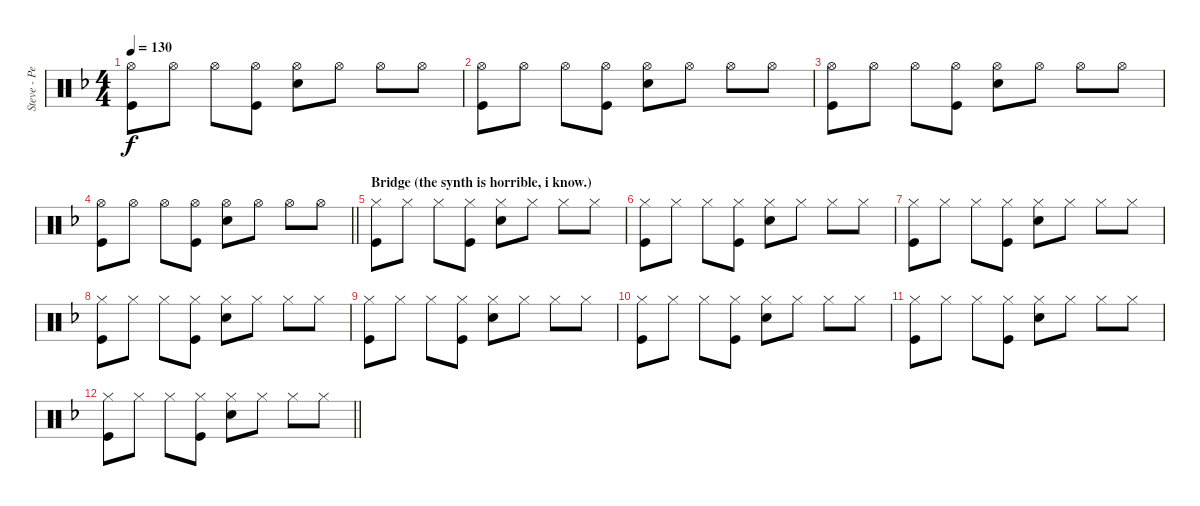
\track ("Steve - Percussion" "Steve - Pe") {instrument percussion}
\staff {score}
\articulation defaults
\ts (4 4)
\tempo 130
\clef neutral
\ks f
("Kick (hit)" "Hi-Hat (open)").8{dy f} "Hi-Hat (open)".8 "Hi-Hat (open)".8 ("Kick (hit)" "Hi-Hat (open)").8 ("Snare (hit) 2" "Hi-Hat (open)").8 "Hi-Hat (open)".8 "Hi-Hat (open)".8 "Hi-Hat (open)".8 |
("Kick (hit)" "Hi-Hat (open)").8 "Hi-Hat (open)".8 "Hi-Hat (open)".8 ("Kick (hit)" "Hi-Hat (open)").8 ("Snare (hit) 2" "Hi-Hat (open)").8 "Hi-Hat (open)".8 "Hi-Hat (open)".8 "Hi-Hat (open)".8 |
("Kick (hit)" "Hi-Hat (open)").8 "Hi-Hat (open)".8 "Hi-Hat (open)".8 ("Kick (hit)" "Hi-Hat (open)").8 ("Snare (hit) 2" "Hi-Hat (open)").8 "Hi-Hat (open)".8 "Hi-Hat (open)".8 "Hi-Hat (open)".8 |
\barLineRight lightlight
("Kick (hit)" "Hi-Hat (open)").8 "Hi-Hat (open)".8 "Hi-Hat (open)".8 ("Kick (hit)" "Hi-Hat (open)").8 ("Snare (hit) 2" "Hi-Hat (open)").8 "Hi-Hat (open)".8 "Hi-Hat (open)".8 "Hi-Hat (open)".8 |
\section ("" "Bridge (the synth is horrible, i know.)")
("Kick (hit)" "Hi-Hat (closed)").8 "Hi-Hat (closed)".8 "Hi-Hat (closed)".8 ("Kick (hit)" "Hi-Hat (closed)").8 ("Snare (hit) 2" "Hi-Hat (closed)").8 "Hi-Hat (closed)".8 "Hi-Hat (closed)".8 "Hi-Hat (closed)".8 |
("Kick (hit)" "Hi-Hat (closed)").8 "Hi-Hat (closed)".8 "Hi-Hat (closed)".8 ("Kick (hit)" "Hi-Hat (closed)").8 ("Snare (hit) 2" "Hi-Hat (closed)").8 "Hi-Hat (closed)".8 "Hi-Hat (closed)".8 "Hi-Hat (closed)".8 |
("Kick (hit)" "Hi-Hat (closed)").8 "Hi-Hat (closed)".8 "Hi-Hat (closed)".8 ("Kick (hit)" "Hi-Hat (closed)").8 ("Snare (hit) 2" "Hi-Hat (closed)").8 "Hi-Hat (closed)".8 "Hi-Hat (closed)".8 "Hi-Hat (closed)".8 |
("Kick (hit)" "Hi-Hat (closed)").8 "Hi-Hat (closed)".8 "Hi-Hat (closed)".8 ("Kick (hit)" "Hi-Hat (closed)").8 ("Snare (hit) 2" "Hi-Hat (closed)").8 "Hi-Hat (closed)".8 "Hi-Hat (closed)".8 "Hi-Hat (closed)".8 |
("Kick (hit)" "Hi-Hat (closed)").8 "Hi-Hat (closed)".8 "Hi-Hat (closed)".8 ("Kick (hit)" "Hi-Hat (closed)").8 ("Snare (hit) 2" "Hi-Hat (closed)").8 "Hi-Hat (closed)".8 "Hi-Hat (closed)".8 "Hi-Hat (closed)".8 |
("Kick (hit)" "Hi-Hat (closed)").8 "Hi-Hat (closed)".8 "Hi-Hat (closed)".8 ("Kick (hit)" "Hi-Hat (closed)").8 ("Snare (hit) 2" "Hi-Hat (closed)").8 "Hi-Hat (closed)".8 "Hi-Hat (closed)".8 "Hi-Hat (closed)".8 |
("Kick (hit)" "Hi-Hat (closed)").8 "Hi-Hat (closed)".8 "Hi-Hat (closed)".8 ("Kick (hit)" "Hi-Hat (closed)").8 ("Snare (hit) 2" "Hi-Hat (closed)").8 "Hi-Hat (closed)".8 "Hi-Hat (closed)".8 "Hi-Hat (closed)".8 |
\barLineRight lightlight
("Kick (hit)" "Hi-Hat (closed)").8 "Hi-Hat (closed)".8 "Hi-Hat (closed)".8 ("Kick (hit)" "Hi-Hat (closed)").8 ("Snare (hit) 2" "Hi-Hat (closed)").8 "Hi-Hat (closed)".8 "Hi-Hat (closed)".8 "Hi-Hat (closed)".8
